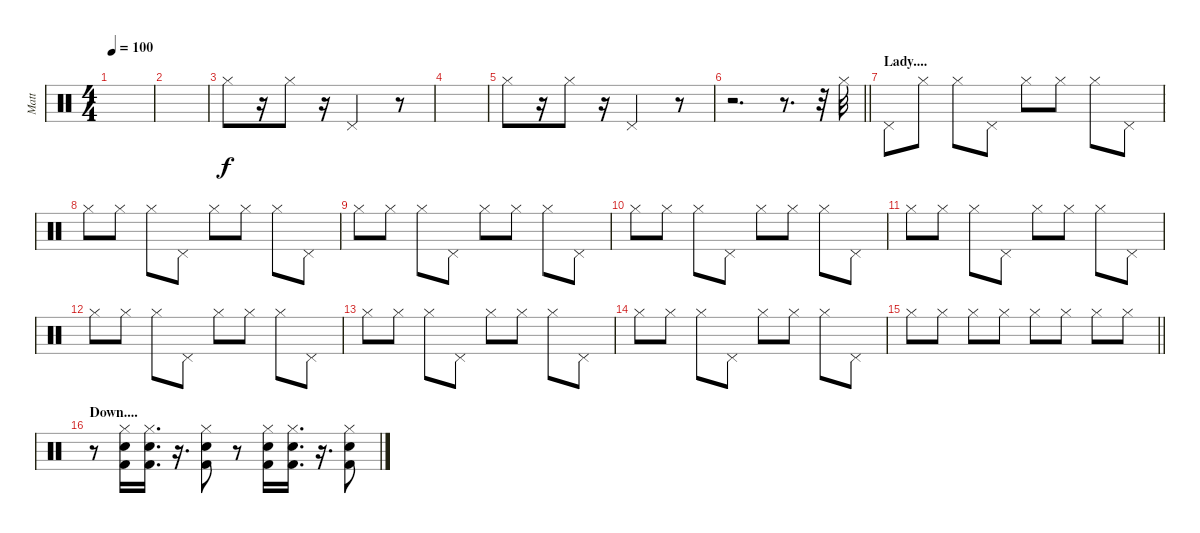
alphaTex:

\track ("Matt" "Matt") {instrument percussion}
\staff {score}
\articulation defaults
\ts (4 4)
\tempo 100
\clef neutral
\ks c
|
|
"Hi-Hat (closed)".8 r.16 "Hi-Hat (closed)".8 r.16 "Pedal Hi-Hat (hit)".2 r.8 |
|
"Hi-Hat (closed)".8 r.16 "Hi-Hat (closed)".8 r.16 "Pedal Hi-Hat (hit)".2 r.8 |
\barLineRight lightlight
r.2{d} r.8{d} r.32 "Hi-Hat (closed)".32 |
\section ("" "Lady....")
"Pedal Hi-Hat (hit)".8 "Hi-Hat (closed)".8 "Hi-Hat (closed)".8 "Pedal Hi-Hat (hit)".8 "Hi-Hat (closed)".8 "Hi-Hat (closed)".8 "Hi-Hat (closed)".8 "Pedal Hi-Hat (hit)".8 |
"Hi-Hat (closed)".8 "Hi-Hat (closed)".8 "Hi-Hat (closed)".8 "Pedal Hi-Hat (hit)".8 "Hi-Hat (closed)".8 "Hi-Hat (closed)".8 "Hi-Hat (closed)".8 "Pedal Hi-Hat (hit)".8 |
"Hi-Hat (closed)".8 "Hi-Hat (closed)".8 "Hi-Hat (closed)".8 "Pedal Hi-Hat (hit)".8 "Hi-Hat (closed)".8 "Hi-Hat (closed)".8 "Hi-Hat (closed)".8 "Pedal Hi-Hat (hit)".8 |
"Hi-Hat (closed)".8 "Hi-Hat (closed)".8 "Hi-Hat (closed)".8 "Pedal Hi-Hat (hit)".8 "Hi-Hat (closed)".8 "Hi-Hat (closed)".8 "Hi-Hat (closed)".8 "Pedal Hi-Hat (hit)".8 |
"Hi-Hat (closed)".8 "Hi-Hat (closed)".8 "Hi-Hat (closed)".8 "Pedal Hi-Hat (hit)".8 "Hi-Hat (closed)".8 "Hi-Hat (closed)".8 "Hi-Hat (closed)".8 "Pedal Hi-Hat (hit)".8 |
"Hi-Hat (closed)".8 "Hi-Hat (closed)".8 "Hi-Hat (closed)".8 "Pedal Hi-Hat (hit)".8 "Hi-Hat (closed)".8 "Hi-Hat (closed)".8 "Hi-Hat (closed)".8 "Pedal Hi-Hat (hit)".8 |
"Hi-Hat (closed)".8 "Hi-Hat (closed)".8 "Hi-Hat (closed)".8 "Pedal Hi-Hat (hit)".8 "Hi-Hat (closed)".8 "Hi-Hat (closed)".8 "Hi-Hat (closed)".8 "Pedal Hi-Hat (hit)".8 |
"Hi-Hat (closed)".8 "Hi-Hat (closed)".8 "Hi-Hat (closed)".8 "Pedal Hi-Hat (hit)".8 "Hi-Hat (closed)".8 "Hi-Hat (closed)".8 "Hi-Hat (closed)".8 "Pedal Hi-Hat (hit)".8 |
\barLineRight lightlight "Hi-Hat (closed)".8 "Hi-Hat (closed)".8 "Hi-Hat (closed)".8 "Hi-Hat (closed)".8 "Hi-Hat (closed)".8 "Hi-Hat (closed)".8 "Hi-Hat (closed)".8 "Hi-Hat (closed)".8
|
\section ("" "Down....")
r.8 ("Hi-Hat (closed)" "Kick (hit) 2" "Electric Snare (hit)").16 ("Hi-Hat (closed)" "Kick (hit) 2" "Electric Snare (hit)").16{d} r.16{d} ("Hi-Hat (closed)" "Kick (hit) 2" "Electric Snare (hit)").8 r.8 ("Hi-Hat (closed)" "Kick (hit) 2" "Electric Snare (hit)").16 ("Hi-Hat (closed)" "Kick (hit) 2" "Electric Snare (hit)").16{d} r.16{d} ("Hi-Hat (closed)" "Kick (hit) 2" "Electric Snare (hit)").8
